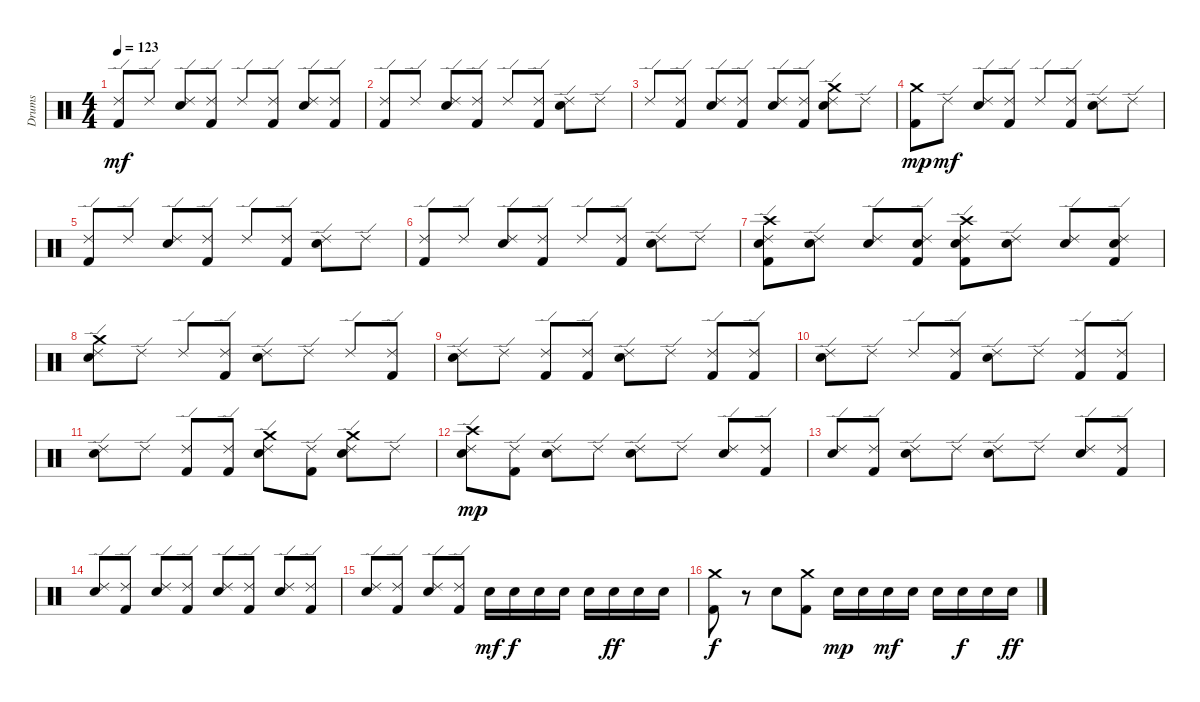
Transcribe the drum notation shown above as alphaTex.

\track ("Drums" "Drums") {instrument percussion}
\staff {score}
\articulation defaults
\ts (4 4)
\tempo 123
\clef neutral
\ks c
("Kick (hit) 2" "Ride (edge) 2").8{dy mf} "Ride (edge) 2".8 ("Electric Snare (hit)" "Ride (edge) 2").8 ("Kick (hit) 2" "Ride (edge) 2").8 "Ride (edge) 2".8 ("Kick (hit) 2" "Ride (edge) 2").8 ("Electric Snare (hit)" "Ride (edge) 2").8 ("Kick (hit) 2" "Ride (edge) 2").8 |
("Kick (hit) 2" "Ride (edge) 2").8 "Ride (edge) 2".8 ("Electric Snare (hit)" "Ride (edge) 2").8 ("Kick (hit) 2" "Ride (edge) 2").8 "Ride (edge) 2".8 ("Kick (hit) 2" "Ride (edge) 2").8 ("Electric Snare (hit)" "Ride (edge) 2").8 "Ride (edge) 2".8 |
"Ride (edge) 2".8 ("Kick (hit) 2" "Ride (edge) 2").8 ("Electric Snare (hit)" "Ride (edge) 2").8 ("Kick (hit) 2" "Ride (edge) 2").8 ("Electric Snare (hit)" "Ride (edge) 2").8 ("Kick (hit) 2" "Ride (edge) 2").8 ("Electric Snare (hit)" "Crash medium (hit)" "Ride (edge) 2").8 "Ride (edge) 2".8 |
("Kick (hit) 2" "Crash medium (hit)").8{dy mp} "Ride (edge) 2".8{dy mf} ("Electric Snare (hit)" "Ride (edge) 2").8 ("Kick (hit) 2" "Ride (edge) 2").8 "Ride (edge) 2".8 ("Kick (hit) 2" "Ride (edge) 2").8 ("Electric Snare (hit)" "Ride (edge) 2").8 "Ride (edge) 2".8 |
("Kick (hit) 2" "Ride (edge) 2").8 "Ride (edge) 2".8 ("Electric Snare (hit)" "Ride (edge) 2").8 ("Kick (hit) 2" "Ride (edge) 2").8 "Ride (edge) 2".8 ("Kick (hit) 2" "Ride (edge) 2").8 ("Electric Snare (hit)" "Ride (edge) 2").8 "Ride (edge) 2".8 |
("Kick (hit) 2" "Ride (edge) 2").8 "Ride (edge) 2".8 ("Electric Snare (hit)" "Ride (edge) 2").8 ("Kick (hit) 2" "Ride (edge) 2").8 "Ride (edge) 2".8 ("Kick (hit) 2" "Ride (edge) 2").8 ("Electric Snare (hit)" "Ride (edge) 2").8 "Ride (edge) 2".8 |
("Kick (hit) 2" "Electric Snare (hit)" "Crash high (hit)" "Ride (edge) 2").8 ("Electric Snare (hit)" "Ride (edge) 2").8 ("Electric Snare (hit)" "Ride (edge) 2").8 ("Kick (hit) 2" "Electric Snare (hit)" "Ride (edge) 2").8 ("Kick (hit) 2" "Electric Snare (hit)" "Crash high (hit)" "Ride (edge) 2").8 ("Electric Snare (hit)" "Ride (edge) 2").8 ("Electric Snare (hit)" "Ride (edge) 2").8 ("Kick (hit) 2" "Electric Snare (hit)" "Ride (edge) 2").8 |
("Electric Snare (hit)" "Crash medium (hit)" "Ride (edge) 2").8 "Ride (edge) 2".8 "Ride (edge) 2".8 ("Kick (hit) 2" "Ride (edge) 2").8 ("Electric Snare (hit)" "Ride (edge) 2").8 "Ride (edge) 2".8 "Ride (edge) 2".8 ("Kick (hit) 2" "Ride (edge) 2").8 |
("Electric Snare (hit)" "Ride (edge) 2").8 "Ride (edge) 2".8 ("Kick (hit) 2" "Ride (edge) 2").8 ("Kick (hit) 2" "Ride (edge) 2").8 ("Electric Snare (hit)" "Ride (edge) 2").8 "Ride (edge) 2".8 ("Kick (hit) 2" "Ride (edge) 2").8 ("Kick (hit) 2" "Ride (edge) 2").8 |
("Electric Snare (hit)" "Ride (edge) 2").8 "Ride (edge) 2".8 "Ride (edge) 2".8 ("Kick (hit) 2" "Ride (edge) 2").8 ("Electric Snare (hit)" "Ride (edge) 2").8 "Ride (edge) 2".8 ("Kick (hit) 2" "Ride (edge) 2").8 ("Kick (hit) 2" "Ride (edge) 2").8 |
("Electric Snare (hit)" "Ride (edge) 2").8 "Ride (edge) 2".8 ("Kick (hit) 2" "Ride (edge) 2").8 ("Kick (hit) 2" "Ride (edge) 2").8 ("Electric Snare (hit)" "Crash medium (hit)" "Ride (edge) 2").8 ("Kick (hit) 2" "Ride (edge) 2").8 ("Electric Snare (hit)" "Crash medium (hit)" "Ride (edge) 2").8 "Ride (edge) 2".8 |
("Electric Snare (hit)" "Crash high (hit)" "Ride (edge) 2").8{dy mp} ("Kick (hit) 2" "Ride (edge) 2").8 ("Electric Snare (hit)" "Ride (edge) 2").8 "Ride (edge) 2".8 ("Electric Snare (hit)" "Ride (edge) 2").8 "Ride (edge) 2".8 ("Electric Snare (hit)" "Ride (edge) 2").8 ("Kick (hit) 2" "Ride (edge) 2").8 |
("Electric Snare (hit)" "Ride (edge) 2").8 ("Kick (hit) 2" "Ride (edge) 2").8 ("Electric Snare (hit)" "Ride (edge) 2").8 "Ride (edge) 2".8 ("Electric Snare (hit)" "Ride (edge) 2").8 "Ride (edge) 2".8 ("Electric Snare (hit)" "Ride (edge) 2").8 ("Kick (hit) 2" "Ride (edge) 2").8 |
("Electric Snare (hit)" "Ride (edge) 2").8 ("Kick (hit) 2" "Ride (edge) 2").8 ("Electric Snare (hit)" "Ride (edge) 2").8 ("Kick (hit) 2" "Ride (edge) 2").8 ("Electric Snare (hit)" "Ride (edge) 2").8 ("Kick (hit) 2" "Ride (edge) 2").8 ("Electric Snare (hit)" "Ride (edge) 2").8 ("Kick (hit) 2" "Ride (edge) 2").8 |
("Electric Snare (hit)" "Ride (edge) 2").8 ("Kick (hit) 2" "Ride (edge) 2").8 ("Electric Snare (hit)" "Ride (edge) 2").8 ("Kick (hit) 2" "Ride (edge) 2").8 "Electric Snare (hit)".16{dy mf} "Electric Snare (hit)".16{dy f} "Electric Snare (hit)".16 "Electric Snare (hit)".16 "Electric Snare (hit)".16 "Electric Snare (hit)".16{dy ff} "Electric Snare (hit)".16 "Electric Snare (hit)".16 |
("Kick (hit) 2" "Crash medium (hit)").8{dy f} r.8 "Electric Snare (hit)".8 ("Kick (hit) 2" "Crash medium (hit)").8 "Electric Snare (hit)".16{dy mp} "Electric Snare (hit)".16 "Electric Snare (hit)".16{dy mf} "Electric Snare (hit)".16 "Electric Snare (hit)".16 "Electric Snare (hit)".16{dy f} "Electric Snare (hit)".16 "Electric Snare (hit)".16{dy ff}
